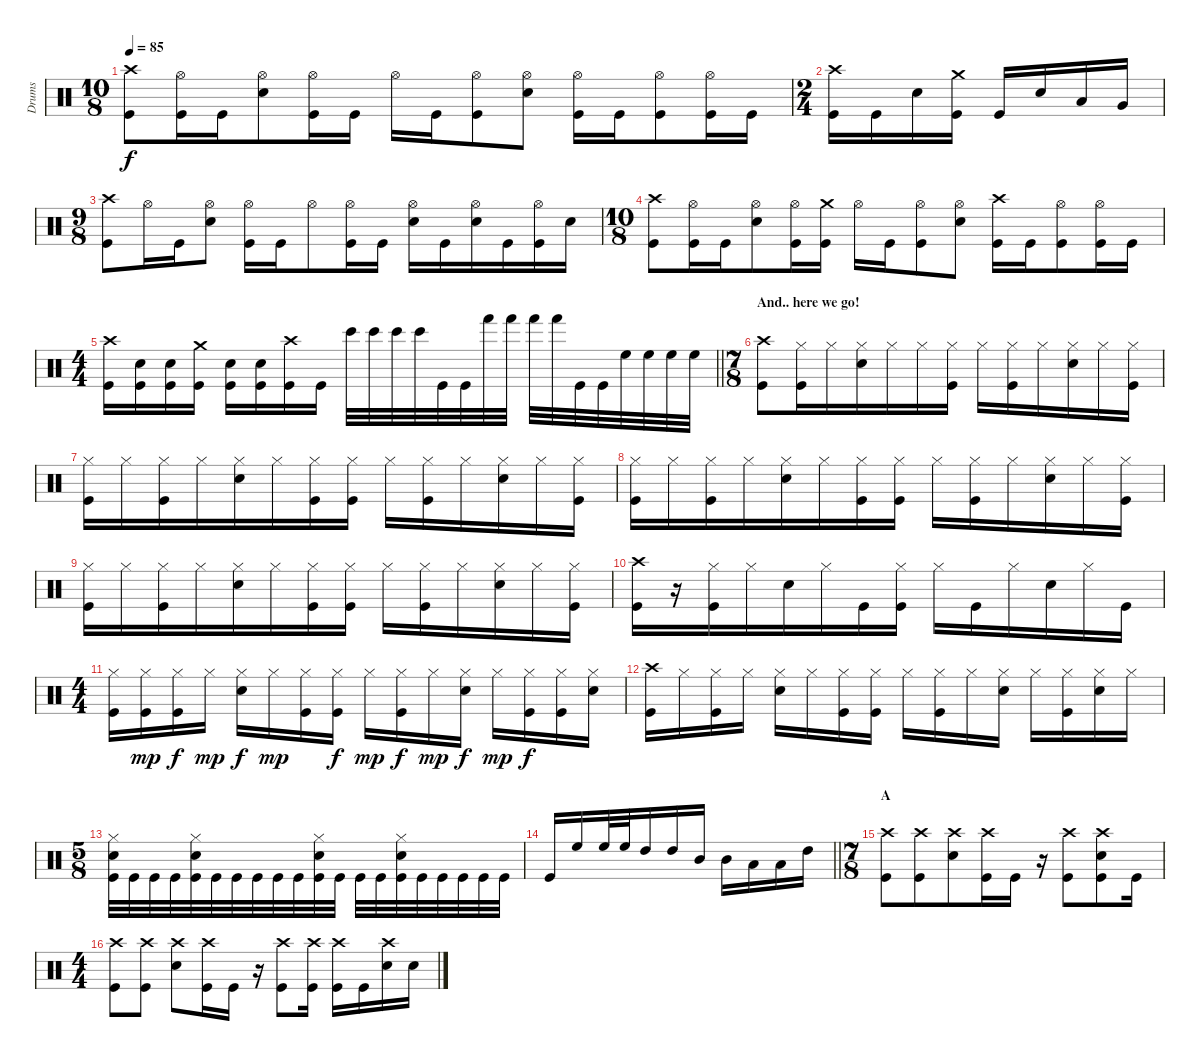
\track ("Drums" "Drums") {instrument percussion}
\staff {score}
\articulation defaults
\ts (10 8)
\tempo 85
\clef neutral
\ks c
("Crash high (hit)" "Kick (hit)").8{dy f} ("Hi-Hat (open)" "Kick (hit)").16 "Kick (hit)".16 ("Hi-Hat (open)" "Snare (hit) 2").8 ("Hi-Hat (open)" "Kick (hit)").16 "Kick (hit)".16 "Hi-Hat (open)".16 "Kick (hit)".16 ("Hi-Hat (open)" "Kick (hit)").8 ("Hi-Hat (open)" "Snare (hit) 2").8 ("Hi-Hat (open)" "Kick (hit)").16 "Kick (hit)".16 ("Hi-Hat (open)" "Kick (hit)").8 ("Hi-Hat (open)" "Kick (hit)").16 "Kick (hit)".16 |
\ts (2 4)
("Crash high (hit)" "Kick (hit)").16 "Kick (hit)".16 "Snare (hit) 2".16 ("Crash medium (hit)" "Kick (hit)").16 "Kick (hit)".16 "Snare (hit) 2".16 "Low Tom (hit)".16 "Very Low Tom (hit)".16 |
\ts (9 8)
("Crash high (hit)" "Kick (hit)").8 "Hi-Hat (open)".16 "Kick (hit)".16 ("Hi-Hat (open)" "Snare (hit) 2").8 ("Hi-Hat (open)" "Kick (hit)").16 "Kick (hit)".16 "Hi-Hat (open)".8 ("Hi-Hat (open)" "Kick (hit)").16 "Kick (hit)".16 ("Snare (hit) 2" "Hi-Hat (open)").16 "Kick (hit)".16 ("Hi-Hat (open)" "Snare (hit) 2").16 "Kick (hit)".16 ("Kick (hit)" "Hi-Hat (open)").16 "Snare (hit) 2".16 |
\ts (10 8)
("Crash high (hit)" "Kick (hit)").8 ("Hi-Hat (open)" "Kick (hit)").16 "Kick (hit)".16 ("Hi-Hat (open)" "Snare (hit) 2").8 ("Hi-Hat (open)" "Kick (hit)").16 ("Crash medium (hit)" "Kick (hit)").16 "Hi-Hat (open)".16 "Kick (hit)".16 ("Hi-Hat (open)" "Kick (hit)").8 ("Hi-Hat (open)" "Snare (hit) 2").8 ("Crash high (hit)" "Kick (hit)").16 "Kick (hit)".16 ("Hi-Hat (open)" "Kick (hit)").8 ("Hi-Hat (open)" "Kick (hit)").16 "Kick (hit)".16 |
\ts (4 4)
\barLineRight lightlight
("Crash high (hit)" "Kick (hit)").16 ("Snare (hit) 2" "Kick (hit)").16 ("Snare (hit) 2" "Kick (hit)").16 ("Crash medium (hit)" "Kick (hit)").16 ("Snare (hit) 2" "Kick (hit)").16 ("Snare (hit) 2" "Kick (hit)").16 ("Crash high (hit)" "Kick (hit)").16 "Kick (hit)".16 "Bongo High (hit)".32 "Bongo High (hit)".32 "Bongo High (hit)".32 "Bongo High (hit)".32 "Kick (hit)".32 "Kick (hit)".32 "Hand (hit)".32 "Hand (hit)".32 "Hand (hit)".32 "Hand (hit)".32 "Kick (hit)".32 "Kick (hit)".32 "High Floor Tom (hit)".32 "High Floor Tom (hit)".32 "High Floor Tom (hit)".32 "High Floor Tom (hit)".32 |
\ts (7 8)
\section ("" "And.. here we go!")
("Crash high (hit)" "Kick (hit)").8 ("Hi-Hat (closed)" "Kick (hit)").16 "Hi-Hat (closed)".16 ("Hi-Hat (closed)" "Snare (hit) 2").16 "Hi-Hat (closed)".16 "Hi-Hat (closed)".16 ("Hi-Hat (closed)" "Kick (hit)").16 "Hi-Hat (closed)".16 ("Hi-Hat (closed)" "Kick (hit)").16 "Hi-Hat (closed)".16 ("Hi-Hat (closed)" "Snare (hit) 2").16 "Hi-Hat (closed)".16 ("Hi-Hat (closed)" "Kick (hit)").16 |
("Hi-Hat (closed)" "Kick (hit)").16 "Hi-Hat (closed)".16 ("Hi-Hat (closed)" "Kick (hit)").16 "Hi-Hat (closed)".16 ("Hi-Hat (closed)" "Snare (hit) 2").16 "Hi-Hat (closed)".16 ("Hi-Hat (closed)" "Kick (hit)").16 ("Hi-Hat (closed)" "Kick (hit)").16 "Hi-Hat (closed)".16 ("Hi-Hat (closed)" "Kick (hit)").16 "Hi-Hat (closed)".16 ("Hi-Hat (closed)" "Snare (hit) 2").16 "Hi-Hat (closed)".16 ("Hi-Hat (closed)" "Kick (hit)").16 |
("Hi-Hat (closed)" "Kick (hit)").16 "Hi-Hat (closed)".16 ("Hi-Hat (closed)" "Kick (hit)").16 "Hi-Hat (closed)".16 ("Hi-Hat (closed)" "Snare (hit) 2").16 "Hi-Hat (closed)".16 ("Hi-Hat (closed)" "Kick (hit)").16 ("Hi-Hat (closed)" "Kick (hit)").16 "Hi-Hat (closed)".16 ("Hi-Hat (closed)" "Kick (hit)").16 "Hi-Hat (closed)".16 ("Hi-Hat (closed)" "Snare (hit) 2").16 "Hi-Hat (closed)".16 ("Hi-Hat (closed)" "Kick (hit)").16 |
("Hi-Hat (closed)" "Kick (hit)").16 "Hi-Hat (closed)".16 ("Hi-Hat (closed)" "Kick (hit)").16 "Hi-Hat (closed)".16 ("Hi-Hat (closed)" "Snare (hit) 2").16 "Hi-Hat (closed)".16 ("Hi-Hat (closed)" "Kick (hit)").16 ("Hi-Hat (closed)" "Kick (hit)").16 "Hi-Hat (closed)".16 ("Hi-Hat (closed)" "Kick (hit)").16 "Hi-Hat (closed)".16 ("Hi-Hat (closed)" "Snare (hit) 2").16 "Hi-Hat (closed)".16 ("Hi-Hat (closed)" "Kick (hit)").16 |
("Crash high (hit)" "Kick (hit)").16 r.16 ("Hi-Hat (closed)" "Kick (hit)").16 "Hi-Hat (closed)".16 "Snare (hit) 2".16 "Hi-Hat (closed)".16 "Kick (hit)".16 ("Hi-Hat (closed)" "Kick (hit)").16 "Hi-Hat (closed)".16 "Kick (hit)".16 "Hi-Hat (closed)".16 "Snare (hit) 2".16 "Hi-Hat (closed)".16 "Kick (hit)".16 |
\ts (4 4)
("Hi-Hat (closed)" "Kick (hit)").16 ("Hi-Hat (closed)" "Kick (hit)").16{dy mp} ("Hi-Hat (closed)" "Kick (hit)").16{dy f} "Hi-Hat (closed)".16{dy mp} ("Hi-Hat (closed)" "Snare (hit) 2").16{dy f} "Hi-Hat (closed)".16{dy mp} ("Hi-Hat (closed)" "Kick (hit)").16 ("Hi-Hat (closed)" "Kick (hit)").16{dy f} "Hi-Hat (closed)".16{dy mp} ("Hi-Hat (closed)" "Kick (hit)").16{dy f} "Hi-Hat (closed)".16{dy mp} ("Hi-Hat (closed)" "Snare (hit) 2").16{dy f} "Hi-Hat (closed)".16{dy mp} ("Hi-Hat (closed)" "Kick (hit)").16{dy f} ("Hi-Hat (closed)" "Kick (hit)").16 ("Hi-Hat (closed)" "Snare (hit) 2").16 |
("Crash high (hit)" "Kick (hit)").16 "Hi-Hat (closed)".16 ("Hi-Hat (closed)" "Kick (hit)").16 "Hi-Hat (closed)".16 ("Hi-Hat (closed)" "Snare (hit) 2").16 "Hi-Hat (closed)".16 ("Hi-Hat (closed)" "Kick (hit)").16 ("Hi-Hat (closed)" "Kick (hit)").16 "Hi-Hat (closed)".16 ("Hi-Hat (closed)" "Kick (hit)").16 "Hi-Hat (closed)".16 ("Hi-Hat (closed)" "Snare (hit) 2").16 "Hi-Hat (closed)".16 ("Hi-Hat (closed)" "Kick (hit)").16 ("Hi-Hat (closed)" "Snare (hit) 2").16 "Hi-Hat (closed)".16 |
\ts (5 8)
("Hi-Hat (closed)" "Snare (hit) 2" "Kick (hit)").32 "Kick (hit)".32 "Kick (hit)".32 "Kick (hit)".32 ("Hi-Hat (closed)" "Snare (hit) 2" "Kick (hit)").32 "Kick (hit)".32 "Kick (hit)".32 "Kick (hit)".32 "Kick (hit)".32 "Kick (hit)".32 ("Hi-Hat (closed)" "Snare (hit) 2" "Kick (hit)").32 "Kick (hit)".32 "Kick (hit)".32 "Kick (hit)".32 ("Kick (hit)" "Snare (hit) 2" "Hi-Hat (closed)").32 "Kick (hit)".32 "Kick (hit)".32 "Kick (hit)".32 "Kick (hit)".32 "Kick (hit)".32 |
\barLineRight lightlight "Kick (hit)".16 "High Floor Tom (hit)".16 "High Floor Tom (hit)".32 "High Floor Tom (hit)".32 "High Tom (hit)".16 "High Tom (hit)".16 "Mid Tom (hit)".16 "Mid Tom (hit)".16 "Low Tom (hit)".16 "Low Tom (hit)".16 "High Tom (hit)".16
|
\ts (7 8)
\section ("" "A")
("Crash high (hit)" "Kick (hit)").8 ("Crash high (hit)" "Kick (hit)").8 ("Crash high (hit)" "Snare (hit) 2").8 ("Crash high (hit)" "Kick (hit)").16 "Kick (hit)".16 r.16 ("Crash high (hit)" "Kick (hit)").8 ("Crash high (hit)" "Kick (hit)" "Snare (hit) 2").8 "Kick (hit)".16 |
\ts (4 4)
("Crash high (hit)" "Kick (hit)").8 ("Crash high (hit)" "Kick (hit)").8 ("Crash high (hit)" "Snare (hit) 2").8 ("Crash high (hit)" "Kick (hit)").16 "Kick (hit)".16 r.16 ("Crash high (hit)" "Kick (hit)").8 ("Crash high (hit)" "Kick (hit)").16 ("Kick (hit)" "Crash high (hit)").16 "Kick (hit)".16 ("Snare (hit) 2" "Crash high (hit)").16 "Snare (hit) 2".16
